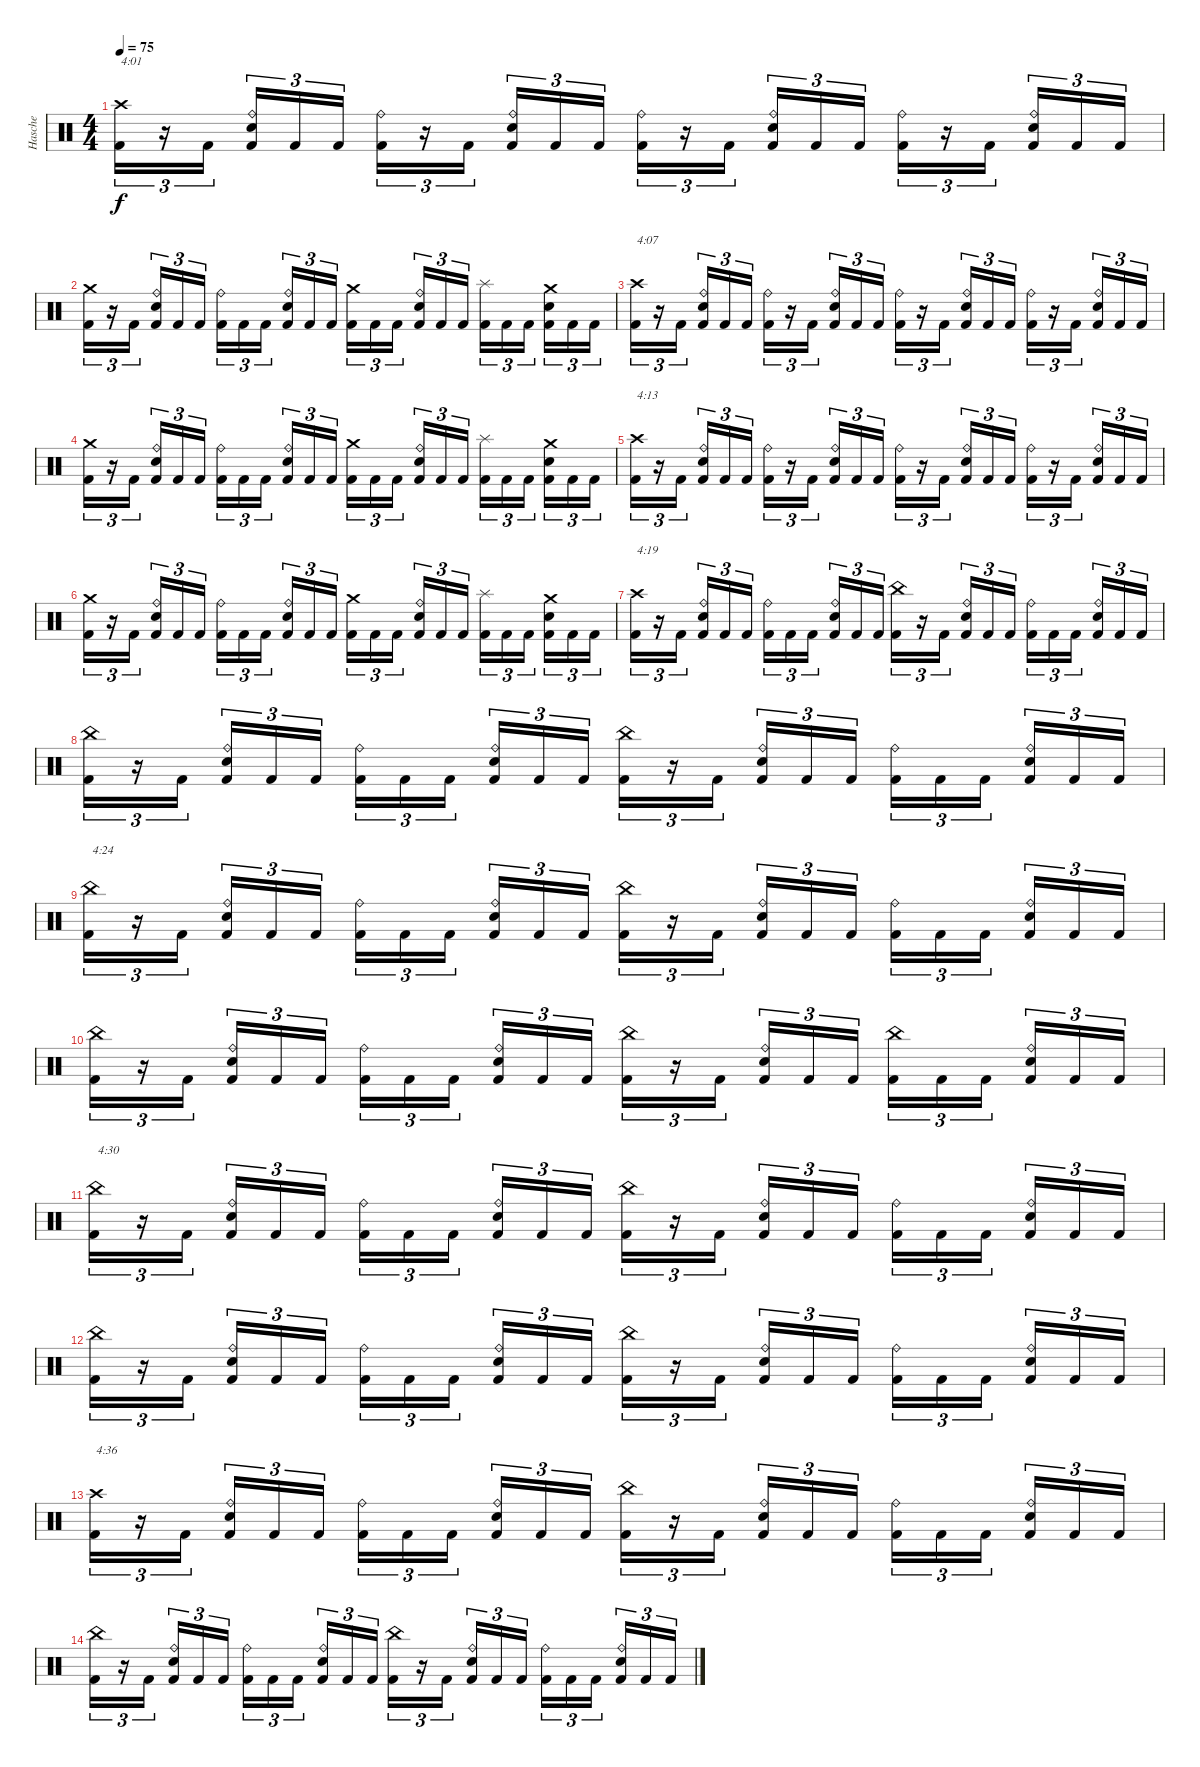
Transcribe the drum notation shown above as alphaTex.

\track ("Hasche" "Hasche") {instrument percussion}
\staff {score}
\articulation defaults
\ts (4 4)
\tempo 75
\clef neutral
\ks c
("Crash high (hit)" "Kick (hit) 2").16{tu (3 2) txt "4:01" dy f} r.16{tu (3 2)} "Kick (hit) 2".16{tu (3 2)} ("Ride (bell)" "Snare (hit) 2" "Kick (hit) 2").16{tu (3 2)} "Kick (hit) 2".16{tu (3 2)} "Kick (hit) 2".16{tu (3 2)} ("Ride (bell)" "Kick (hit) 2").16{tu (3 2)} r.16{tu (3 2)} "Kick (hit) 2".16{tu (3 2)} ("Ride (bell)" "Snare (hit) 2" "Kick (hit) 2").16{tu (3 2)} "Kick (hit) 2".16{tu (3 2)} "Kick (hit) 2".16{tu (3 2)} ("Ride (bell)" "Kick (hit) 2").16{tu (3 2)} r.16{tu (3 2)} "Kick (hit) 2".16{tu (3 2)} ("Ride (bell)" "Snare (hit) 2" "Kick (hit) 2").16{tu (3 2)} "Kick (hit) 2".16{tu (3 2)} "Kick (hit) 2".16{tu (3 2)} ("Ride (bell)" "Kick (hit) 2").16{tu (3 2)} r.16{tu (3 2)} "Kick (hit) 2".16{tu (3 2)} ("Ride (bell)" "Snare (hit) 2" "Kick (hit) 2").16{tu (3 2)} "Kick (hit) 2".16{tu (3 2)} "Kick (hit) 2".16{tu (3 2)} |
("Crash medium (hit)" "Kick (hit) 2").16{tu (3 2)} r.16{tu (3 2)} "Kick (hit) 2".16{tu (3 2)} ("Ride (bell)" "Snare (hit) 2" "Kick (hit) 2").16{tu (3 2)} "Kick (hit) 2".16{tu (3 2)} "Kick (hit) 2".16{tu (3 2)} ("Ride (bell)" "Kick (hit) 2").16{tu (3 2)} "Kick (hit) 2".16{tu (3 2)} "Kick (hit) 2".16{tu (3 2)} ("Ride (bell)" "Snare (hit) 2" "Kick (hit) 2").16{tu (3 2)} "Kick (hit) 2".16{tu (3 2)} "Kick (hit) 2".16{tu (3 2)} ("Crash medium (hit)" "Kick (hit) 2").16{tu (3 2)} "Kick (hit) 2".16{tu (3 2)} "Kick (hit) 2".16{tu (3 2)} ("Ride (bell)" "Snare (hit) 2" "Kick (hit) 2").16{tu (3 2)} "Kick (hit) 2".16{tu (3 2)} "Kick (hit) 2".16{tu (3 2)} ("Splash (hit)" "Kick (hit) 2").16{tu (3 2)} "Kick (hit) 2".16{tu (3 2)} "Kick (hit) 2".16{tu (3 2)} ("Crash medium (hit)" "Snare (hit) 2" "Kick (hit) 2").16{tu (3 2)} "Kick (hit) 2".16{tu (3 2)} "Kick (hit) 2".16{tu (3 2)} |
("Crash high (hit)" "Kick (hit) 2").16{tu (3 2) txt "4:07"} r.16{tu (3 2)} "Kick (hit) 2".16{tu (3 2)} ("Ride (bell)" "Snare (hit) 2" "Kick (hit) 2").16{tu (3 2)} "Kick (hit) 2".16{tu (3 2)} "Kick (hit) 2".16{tu (3 2)} ("Ride (bell)" "Kick (hit) 2").16{tu (3 2)} r.16{tu (3 2)} "Kick (hit) 2".16{tu (3 2)} ("Ride (bell)" "Snare (hit) 2" "Kick (hit) 2").16{tu (3 2)} "Kick (hit) 2".16{tu (3 2)} "Kick (hit) 2".16{tu (3 2)} ("Ride (bell)" "Kick (hit) 2").16{tu (3 2)} r.16{tu (3 2)} "Kick (hit) 2".16{tu (3 2)} ("Ride (bell)" "Snare (hit) 2" "Kick (hit) 2").16{tu (3 2)} "Kick (hit) 2".16{tu (3 2)} "Kick (hit) 2".16{tu (3 2)} ("Ride (bell)" "Kick (hit) 2").16{tu (3 2)} r.16{tu (3 2)} "Kick (hit) 2".16{tu (3 2)} ("Ride (bell)" "Snare (hit) 2" "Kick (hit) 2").16{tu (3 2)} "Kick (hit) 2".16{tu (3 2)} "Kick (hit) 2".16{tu (3 2)} |
("Crash medium (hit)" "Kick (hit) 2").16{tu (3 2)} r.16{tu (3 2)} "Kick (hit) 2".16{tu (3 2)} ("Ride (bell)" "Snare (hit) 2" "Kick (hit) 2").16{tu (3 2)} "Kick (hit) 2".16{tu (3 2)} "Kick (hit) 2".16{tu (3 2)} ("Ride (bell)" "Kick (hit) 2").16{tu (3 2)} "Kick (hit) 2".16{tu (3 2)} "Kick (hit) 2".16{tu (3 2)} ("Ride (bell)" "Snare (hit) 2" "Kick (hit) 2").16{tu (3 2)} "Kick (hit) 2".16{tu (3 2)} "Kick (hit) 2".16{tu (3 2)} ("Crash medium (hit)" "Kick (hit) 2").16{tu (3 2)} "Kick (hit) 2".16{tu (3 2)} "Kick (hit) 2".16{tu (3 2)} ("Ride (bell)" "Snare (hit) 2" "Kick (hit) 2").16{tu (3 2)} "Kick (hit) 2".16{tu (3 2)} "Kick (hit) 2".16{tu (3 2)} ("Splash (hit)" "Kick (hit) 2").16{tu (3 2)} "Kick (hit) 2".16{tu (3 2)} "Kick (hit) 2".16{tu (3 2)} ("Crash medium (hit)" "Snare (hit) 2" "Kick (hit) 2").16{tu (3 2)} "Kick (hit) 2".16{tu (3 2)} "Kick (hit) 2".16{tu (3 2)} |
("Crash high (hit)" "Kick (hit) 2").16{tu (3 2) txt "4:13"} r.16{tu (3 2)} "Kick (hit) 2".16{tu (3 2)} ("Ride (bell)" "Snare (hit) 2" "Kick (hit) 2").16{tu (3 2)} "Kick (hit) 2".16{tu (3 2)} "Kick (hit) 2".16{tu (3 2)} ("Ride (bell)" "Kick (hit) 2").16{tu (3 2)} r.16{tu (3 2)} "Kick (hit) 2".16{tu (3 2)} ("Ride (bell)" "Snare (hit) 2" "Kick (hit) 2").16{tu (3 2)} "Kick (hit) 2".16{tu (3 2)} "Kick (hit) 2".16{tu (3 2)} ("Ride (bell)" "Kick (hit) 2").16{tu (3 2)} r.16{tu (3 2)} "Kick (hit) 2".16{tu (3 2)} ("Ride (bell)" "Snare (hit) 2" "Kick (hit) 2").16{tu (3 2)} "Kick (hit) 2".16{tu (3 2)} "Kick (hit) 2".16{tu (3 2)} ("Ride (bell)" "Kick (hit) 2").16{tu (3 2)} r.16{tu (3 2)} "Kick (hit) 2".16{tu (3 2)} ("Ride (bell)" "Snare (hit) 2" "Kick (hit) 2").16{tu (3 2)} "Kick (hit) 2".16{tu (3 2)} "Kick (hit) 2".16{tu (3 2)} |
("Crash medium (hit)" "Kick (hit) 2").16{tu (3 2)} r.16{tu (3 2)} "Kick (hit) 2".16{tu (3 2)} ("Ride (bell)" "Snare (hit) 2" "Kick (hit) 2").16{tu (3 2)} "Kick (hit) 2".16{tu (3 2)} "Kick (hit) 2".16{tu (3 2)} ("Ride (bell)" "Kick (hit) 2").16{tu (3 2)} "Kick (hit) 2".16{tu (3 2)} "Kick (hit) 2".16{tu (3 2)} ("Ride (bell)" "Snare (hit) 2" "Kick (hit) 2").16{tu (3 2)} "Kick (hit) 2".16{tu (3 2)} "Kick (hit) 2".16{tu (3 2)} ("Crash medium (hit)" "Kick (hit) 2").16{tu (3 2)} "Kick (hit) 2".16{tu (3 2)} "Kick (hit) 2".16{tu (3 2)} ("Ride (bell)" "Snare (hit) 2" "Kick (hit) 2").16{tu (3 2)} "Kick (hit) 2".16{tu (3 2)} "Kick (hit) 2".16{tu (3 2)} ("Splash (hit)" "Kick (hit) 2").16{tu (3 2)} "Kick (hit) 2".16{tu (3 2)} "Kick (hit) 2".16{tu (3 2)} ("Crash medium (hit)" "Snare (hit) 2" "Kick (hit) 2").16{tu (3 2)} "Kick (hit) 2".16{tu (3 2)} "Kick (hit) 2".16{tu (3 2)} |
("Crash high (hit)" "Kick (hit) 2").16{tu (3 2) txt "4:19"} r.16{tu (3 2)} "Kick (hit) 2".16{tu (3 2)} ("Ride (bell)" "Snare (hit) 2" "Kick (hit) 2").16{tu (3 2)} "Kick (hit) 2".16{tu (3 2)} "Kick (hit) 2".16{tu (3 2)} ("Ride (bell)" "Kick (hit) 2").16{tu (3 2)} "Kick (hit) 2".16{tu (3 2)} "Kick (hit) 2".16{tu (3 2)} ("Ride (bell)" "Snare (hit) 2" "Kick (hit) 2").16{tu (3 2)} "Kick (hit) 2".16{tu (3 2)} "Kick (hit) 2".16{tu (3 2)} ("China (hit)" "Kick (hit) 2").16{tu (3 2)} r.16{tu (3 2)} "Kick (hit) 2".16{tu (3 2)} ("Ride (bell)" "Snare (hit) 2" "Kick (hit) 2").16{tu (3 2)} "Kick (hit) 2".16{tu (3 2)} "Kick (hit) 2".16{tu (3 2)} ("Ride (bell)" "Kick (hit) 2").16{tu (3 2)} "Kick (hit) 2".16{tu (3 2)} "Kick (hit) 2".16{tu (3 2)} ("Ride (bell)" "Snare (hit) 2" "Kick (hit) 2").16{tu (3 2)} "Kick (hit) 2".16{tu (3 2)} "Kick (hit) 2".16{tu (3 2)} |
("China (hit)" "Kick (hit) 2").16{tu (3 2)} r.16{tu (3 2)} "Kick (hit) 2".16{tu (3 2)} ("Ride (bell)" "Snare (hit) 2" "Kick (hit) 2").16{tu (3 2)} "Kick (hit) 2".16{tu (3 2)} "Kick (hit) 2".16{tu (3 2)} ("Ride (bell)" "Kick (hit) 2").16{tu (3 2)} "Kick (hit) 2".16{tu (3 2)} "Kick (hit) 2".16{tu (3 2)} ("Ride (bell)" "Snare (hit) 2" "Kick (hit) 2").16{tu (3 2)} "Kick (hit) 2".16{tu (3 2)} "Kick (hit) 2".16{tu (3 2)} ("China (hit)" "Kick (hit) 2").16{tu (3 2)} r.16{tu (3 2)} "Kick (hit) 2".16{tu (3 2)} ("Ride (bell)" "Snare (hit) 2" "Kick (hit) 2").16{tu (3 2)} "Kick (hit) 2".16{tu (3 2)} "Kick (hit) 2".16{tu (3 2)} ("Ride (bell)" "Kick (hit) 2").16{tu (3 2)} "Kick (hit) 2".16{tu (3 2)} "Kick (hit) 2".16{tu (3 2)} ("Ride (bell)" "Snare (hit) 2" "Kick (hit) 2").16{tu (3 2)} "Kick (hit) 2".16{tu (3 2)} "Kick (hit) 2".16{tu (3 2)} |
("China (hit)" "Kick (hit) 2").16{tu (3 2) txt "4:24"} r.16{tu (3 2)} "Kick (hit) 2".16{tu (3 2)} ("Ride (bell)" "Snare (hit) 2" "Kick (hit) 2").16{tu (3 2)} "Kick (hit) 2".16{tu (3 2)} "Kick (hit) 2".16{tu (3 2)} ("Ride (bell)" "Kick (hit) 2").16{tu (3 2)} "Kick (hit) 2".16{tu (3 2)} "Kick (hit) 2".16{tu (3 2)} ("Ride (bell)" "Snare (hit) 2" "Kick (hit) 2").16{tu (3 2)} "Kick (hit) 2".16{tu (3 2)} "Kick (hit) 2".16{tu (3 2)} ("China (hit)" "Kick (hit) 2").16{tu (3 2)} r.16{tu (3 2)} "Kick (hit) 2".16{tu (3 2)} ("Ride (bell)" "Snare (hit) 2" "Kick (hit) 2").16{tu (3 2)} "Kick (hit) 2".16{tu (3 2)} "Kick (hit) 2".16{tu (3 2)} ("Ride (bell)" "Kick (hit) 2").16{tu (3 2)} "Kick (hit) 2".16{tu (3 2)} "Kick (hit) 2".16{tu (3 2)} ("Ride (bell)" "Snare (hit) 2" "Kick (hit) 2").16{tu (3 2)} "Kick (hit) 2".16{tu (3 2)} "Kick (hit) 2".16{tu (3 2)} |
("China (hit)" "Kick (hit) 2").16{tu (3 2)} r.16{tu (3 2)} "Kick (hit) 2".16{tu (3 2)} ("Ride (bell)" "Snare (hit) 2" "Kick (hit) 2").16{tu (3 2)} "Kick (hit) 2".16{tu (3 2)} "Kick (hit) 2".16{tu (3 2)} ("Ride (bell)" "Kick (hit) 2").16{tu (3 2)} "Kick (hit) 2".16{tu (3 2)} "Kick (hit) 2".16{tu (3 2)} ("Ride (bell)" "Snare (hit) 2" "Kick (hit) 2").16{tu (3 2)} "Kick (hit) 2".16{tu (3 2)} "Kick (hit) 2".16{tu (3 2)} ("China (hit)" "Kick (hit) 2").16{tu (3 2)} r.16{tu (3 2)} "Kick (hit) 2".16{tu (3 2)} ("Ride (bell)" "Snare (hit) 2" "Kick (hit) 2").16{tu (3 2)} "Kick (hit) 2".16{tu (3 2)} "Kick (hit) 2".16{tu (3 2)} ("China (hit)" "Kick (hit) 2").16{tu (3 2)} "Kick (hit) 2".16{tu (3 2)} "Kick (hit) 2".16{tu (3 2)} ("Ride (bell)" "Snare (hit) 2" "Kick (hit) 2").16{tu (3 2)} "Kick (hit) 2".16{tu (3 2)} "Kick (hit) 2".16{tu (3 2)} |
("China (hit)" "Kick (hit) 2").16{tu (3 2) txt "4:30"} r.16{tu (3 2)} "Kick (hit) 2".16{tu (3 2)} ("Ride (bell)" "Snare (hit) 2" "Kick (hit) 2").16{tu (3 2)} "Kick (hit) 2".16{tu (3 2)} "Kick (hit) 2".16{tu (3 2)} ("Ride (bell)" "Kick (hit) 2").16{tu (3 2)} "Kick (hit) 2".16{tu (3 2)} "Kick (hit) 2".16{tu (3 2)} ("Ride (bell)" "Snare (hit) 2" "Kick (hit) 2").16{tu (3 2)} "Kick (hit) 2".16{tu (3 2)} "Kick (hit) 2".16{tu (3 2)} ("China (hit)" "Kick (hit) 2").16{tu (3 2)} r.16{tu (3 2)} "Kick (hit) 2".16{tu (3 2)} ("Ride (bell)" "Snare (hit) 2" "Kick (hit) 2").16{tu (3 2)} "Kick (hit) 2".16{tu (3 2)} "Kick (hit) 2".16{tu (3 2)} ("Ride (bell)" "Kick (hit) 2").16{tu (3 2)} "Kick (hit) 2".16{tu (3 2)} "Kick (hit) 2".16{tu (3 2)} ("Ride (bell)" "Snare (hit) 2" "Kick (hit) 2").16{tu (3 2)} "Kick (hit) 2".16{tu (3 2)} "Kick (hit) 2".16{tu (3 2)} |
("China (hit)" "Kick (hit) 2").16{tu (3 2)} r.16{tu (3 2)} "Kick (hit) 2".16{tu (3 2)} ("Ride (bell)" "Snare (hit) 2" "Kick (hit) 2").16{tu (3 2)} "Kick (hit) 2".16{tu (3 2)} "Kick (hit) 2".16{tu (3 2)} ("Ride (bell)" "Kick (hit) 2").16{tu (3 2)} "Kick (hit) 2".16{tu (3 2)} "Kick (hit) 2".16{tu (3 2)} ("Ride (bell)" "Snare (hit) 2" "Kick (hit) 2").16{tu (3 2)} "Kick (hit) 2".16{tu (3 2)} "Kick (hit) 2".16{tu (3 2)} ("China (hit)" "Kick (hit) 2").16{tu (3 2)} r.16{tu (3 2)} "Kick (hit) 2".16{tu (3 2)} ("Ride (bell)" "Snare (hit) 2" "Kick (hit) 2").16{tu (3 2)} "Kick (hit) 2".16{tu (3 2)} "Kick (hit) 2".16{tu (3 2)} ("Ride (bell)" "Kick (hit) 2").16{tu (3 2)} "Kick (hit) 2".16{tu (3 2)} "Kick (hit) 2".16{tu (3 2)} ("Ride (bell)" "Snare (hit) 2" "Kick (hit) 2").16{tu (3 2)} "Kick (hit) 2".16{tu (3 2)} "Kick (hit) 2".16{tu (3 2)} |
("Crash high (hit)" "Kick (hit) 2").16{tu (3 2) txt "4:36"} r.16{tu (3 2)} "Kick (hit) 2".16{tu (3 2)} ("Ride (bell)" "Snare (hit) 2" "Kick (hit) 2").16{tu (3 2)} "Kick (hit) 2".16{tu (3 2)} "Kick (hit) 2".16{tu (3 2)} ("Ride (bell)" "Kick (hit) 2").16{tu (3 2)} "Kick (hit) 2".16{tu (3 2)} "Kick (hit) 2".16{tu (3 2)} ("Ride (bell)" "Snare (hit) 2" "Kick (hit) 2").16{tu (3 2)} "Kick (hit) 2".16{tu (3 2)} "Kick (hit) 2".16{tu (3 2)} ("China (hit)" "Kick (hit) 2").16{tu (3 2)} r.16{tu (3 2)} "Kick (hit) 2".16{tu (3 2)} ("Ride (bell)" "Snare (hit) 2" "Kick (hit) 2").16{tu (3 2)} "Kick (hit) 2".16{tu (3 2)} "Kick (hit) 2".16{tu (3 2)} ("Ride (bell)" "Kick (hit) 2").16{tu (3 2)} "Kick (hit) 2".16{tu (3 2)} "Kick (hit) 2".16{tu (3 2)} ("Ride (bell)" "Snare (hit) 2" "Kick (hit) 2").16{tu (3 2)} "Kick (hit) 2".16{tu (3 2)} "Kick (hit) 2".16{tu (3 2)} |
("China (hit)" "Kick (hit) 2").16{tu (3 2)} r.16{tu (3 2)} "Kick (hit) 2".16{tu (3 2)} ("Ride (bell)" "Snare (hit) 2" "Kick (hit) 2").16{tu (3 2)} "Kick (hit) 2".16{tu (3 2)} "Kick (hit) 2".16{tu (3 2)} ("Ride (bell)" "Kick (hit) 2").16{tu (3 2)} "Kick (hit) 2".16{tu (3 2)} "Kick (hit) 2".16{tu (3 2)} ("Ride (bell)" "Snare (hit) 2" "Kick (hit) 2").16{tu (3 2)} "Kick (hit) 2".16{tu (3 2)} "Kick (hit) 2".16{tu (3 2)} ("China (hit)" "Kick (hit) 2").16{tu (3 2)} r.16{tu (3 2)} "Kick (hit) 2".16{tu (3 2)} ("Ride (bell)" "Snare (hit) 2" "Kick (hit) 2").16{tu (3 2)} "Kick (hit) 2".16{tu (3 2)} "Kick (hit) 2".16{tu (3 2)} ("Ride (bell)" "Kick (hit) 2").16{tu (3 2)} "Kick (hit) 2".16{tu (3 2)} "Kick (hit) 2".16{tu (3 2)} ("Ride (bell)" "Snare (hit) 2" "Kick (hit) 2").16{tu (3 2)} "Kick (hit) 2".16{tu (3 2)} "Kick (hit) 2".16{tu (3 2)}
